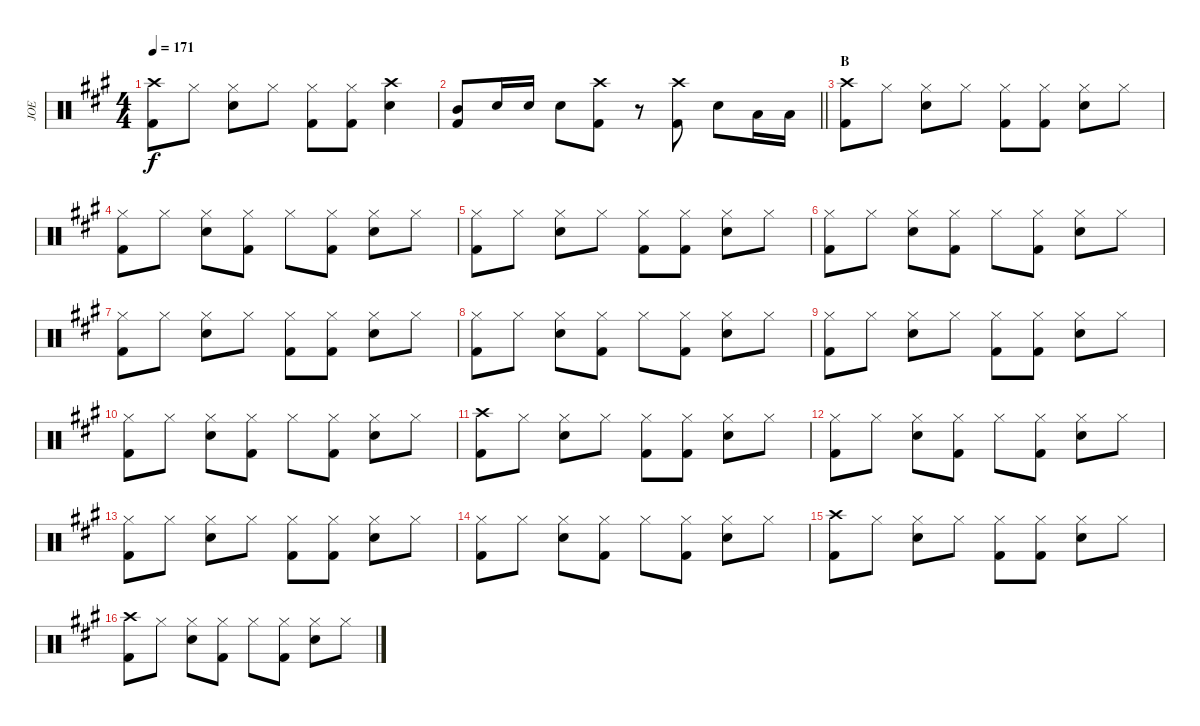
\track ("JOE" "JOE") {instrument percussion}
\staff {score}
\articulation defaults
\ts (4 4)
\tempo 171
\clef neutral
\ks a
("Crash high (hit)" "Kick (hit) 2").8{dy f} "Hi-Hat (closed)".8 ("Hi-Hat (closed)" "Snare (hit) 2").8 "Hi-Hat (closed)".8 ("Hi-Hat (closed)" "Kick (hit) 2").8 ("Hi-Hat (closed)" "Kick (hit) 2").8 ("Crash high (hit)" "Snare (hit) 2").4 |
\barLineRight lightlight
("Mid Tom (hit)" "Kick (hit) 2").8 "Snare (hit) 2".16 "Snare (hit) 2".16 "Snare (hit) 2".8 ("Crash high (hit)" "Kick (hit) 2").8 r.8 ("Crash high (hit)" "Kick (hit) 2").8 "Snare (hit) 2".8 "Low Tom (hit)".16 "Low Tom (hit)".16 |
\section ("" "B")
("Crash high (hit)" "Kick (hit) 2").8 "Hi-Hat (closed)".8 ("Hi-Hat (closed)" "Snare (hit) 2").8 "Hi-Hat (closed)".8 ("Hi-Hat (closed)" "Kick (hit) 2").8 ("Hi-Hat (closed)" "Kick (hit) 2").8 ("Hi-Hat (closed)" "Snare (hit) 2").8 "Hi-Hat (closed)".8 |
("Hi-Hat (closed)" "Kick (hit) 2").8 "Hi-Hat (closed)".8 ("Hi-Hat (closed)" "Snare (hit) 2").8 ("Hi-Hat (closed)" "Kick (hit) 2").8 "Hi-Hat (closed)".8 ("Hi-Hat (closed)" "Kick (hit) 2").8 ("Hi-Hat (closed)" "Snare (hit) 2").8 "Hi-Hat (closed)".8 |
("Hi-Hat (closed)" "Kick (hit) 2").8 "Hi-Hat (closed)".8 ("Hi-Hat (closed)" "Snare (hit) 2").8 "Hi-Hat (closed)".8 ("Hi-Hat (closed)" "Kick (hit) 2").8 ("Hi-Hat (closed)" "Kick (hit) 2").8 ("Hi-Hat (closed)" "Snare (hit) 2").8 "Hi-Hat (closed)".8 |
("Hi-Hat (closed)" "Kick (hit) 2").8 "Hi-Hat (closed)".8 ("Hi-Hat (closed)" "Snare (hit) 2").8 ("Hi-Hat (closed)" "Kick (hit) 2").8 "Hi-Hat (closed)".8 ("Hi-Hat (closed)" "Kick (hit) 2").8 ("Hi-Hat (closed)" "Snare (hit) 2").8 "Hi-Hat (closed)".8 |
("Hi-Hat (closed)" "Kick (hit) 2").8 "Hi-Hat (closed)".8 ("Hi-Hat (closed)" "Snare (hit) 2").8 "Hi-Hat (closed)".8 ("Hi-Hat (closed)" "Kick (hit) 2").8 ("Hi-Hat (closed)" "Kick (hit) 2").8 ("Hi-Hat (closed)" "Snare (hit) 2").8 "Hi-Hat (closed)".8 |
("Hi-Hat (closed)" "Kick (hit) 2").8 "Hi-Hat (closed)".8 ("Hi-Hat (closed)" "Snare (hit) 2").8 ("Hi-Hat (closed)" "Kick (hit) 2").8 "Hi-Hat (closed)".8 ("Hi-Hat (closed)" "Kick (hit) 2").8 ("Hi-Hat (closed)" "Snare (hit) 2").8 "Hi-Hat (closed)".8 |
("Hi-Hat (closed)" "Kick (hit) 2").8 "Hi-Hat (closed)".8 ("Hi-Hat (closed)" "Snare (hit) 2").8 "Hi-Hat (closed)".8 ("Hi-Hat (closed)" "Kick (hit) 2").8 ("Hi-Hat (closed)" "Kick (hit) 2").8 ("Hi-Hat (closed)" "Snare (hit) 2").8 "Hi-Hat (closed)".8 |
("Hi-Hat (closed)" "Kick (hit) 2").8 "Hi-Hat (closed)".8 ("Hi-Hat (closed)" "Snare (hit) 2").8 ("Hi-Hat (closed)" "Kick (hit) 2").8 "Hi-Hat (closed)".8 ("Hi-Hat (closed)" "Kick (hit) 2").8 ("Hi-Hat (closed)" "Snare (hit) 2").8 "Hi-Hat (closed)".8 |
("Crash high (hit)" "Kick (hit) 2").8 "Hi-Hat (closed)".8 ("Hi-Hat (closed)" "Snare (hit) 2").8 "Hi-Hat (closed)".8 ("Hi-Hat (closed)" "Kick (hit) 2").8 ("Hi-Hat (closed)" "Kick (hit) 2").8 ("Hi-Hat (closed)" "Snare (hit) 2").8 "Hi-Hat (closed)".8 |
("Hi-Hat (closed)" "Kick (hit) 2").8 "Hi-Hat (closed)".8 ("Hi-Hat (closed)" "Snare (hit) 2").8 ("Hi-Hat (closed)" "Kick (hit) 2").8 "Hi-Hat (closed)".8 ("Hi-Hat (closed)" "Kick (hit) 2").8 ("Hi-Hat (closed)" "Snare (hit) 2").8 "Hi-Hat (closed)".8 |
("Hi-Hat (closed)" "Kick (hit) 2").8 "Hi-Hat (closed)".8 ("Hi-Hat (closed)" "Snare (hit) 2").8 "Hi-Hat (closed)".8 ("Hi-Hat (closed)" "Kick (hit) 2").8 ("Hi-Hat (closed)" "Kick (hit) 2").8 ("Hi-Hat (closed)" "Snare (hit) 2").8 "Hi-Hat (closed)".8 |
("Hi-Hat (closed)" "Kick (hit) 2").8 "Hi-Hat (closed)".8 ("Hi-Hat (closed)" "Snare (hit) 2").8 ("Hi-Hat (closed)" "Kick (hit) 2").8 "Hi-Hat (closed)".8 ("Hi-Hat (closed)" "Kick (hit) 2").8 ("Hi-Hat (closed)" "Snare (hit) 2").8 "Hi-Hat (closed)".8 |
("Crash high (hit)" "Kick (hit) 2").8 "Hi-Hat (closed)".8 ("Hi-Hat (closed)" "Snare (hit) 2").8 "Hi-Hat (closed)".8 ("Hi-Hat (closed)" "Kick (hit) 2").8 ("Hi-Hat (closed)" "Kick (hit) 2").8 ("Hi-Hat (closed)" "Snare (hit) 2").8 "Hi-Hat (closed)".8 |
("Crash high (hit)" "Kick (hit) 2").8 "Hi-Hat (closed)".8 ("Hi-Hat (closed)" "Snare (hit) 2").8 ("Hi-Hat (closed)" "Kick (hit) 2").8 "Hi-Hat (closed)".8 ("Hi-Hat (closed)" "Kick (hit) 2").8 ("Hi-Hat (closed)" "Snare (hit) 2").8 "Hi-Hat (closed)".8
